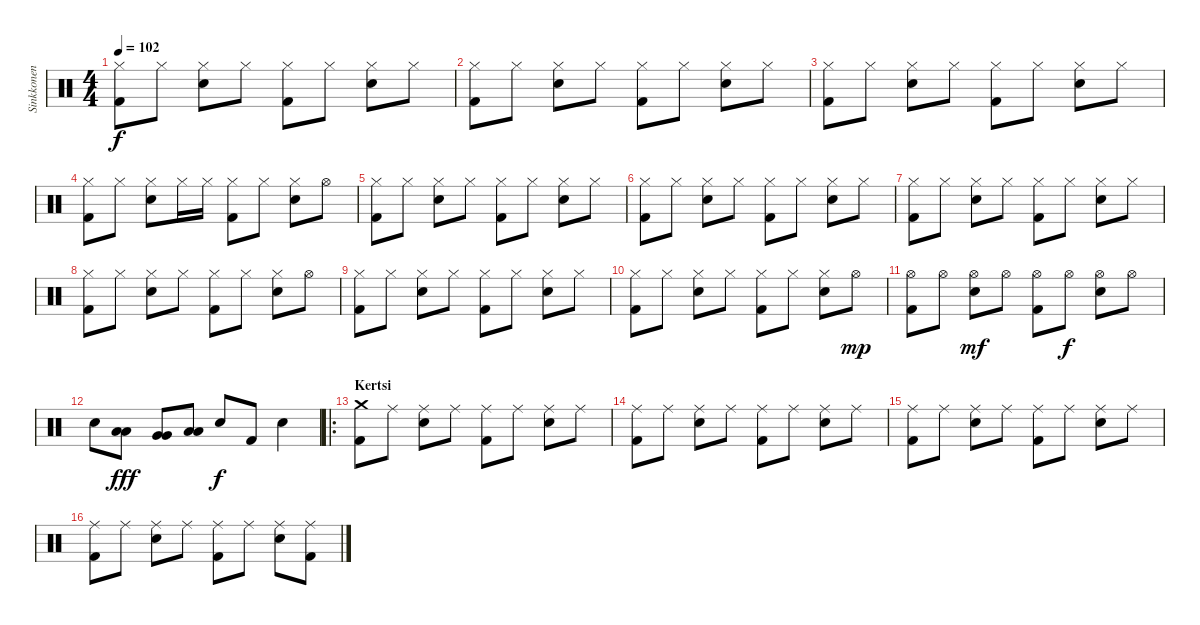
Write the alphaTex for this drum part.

\track ("Sinkkonen" "Sinkkonen") {instrument percussion}
\staff {score}
\articulation defaults
\ts (4 4)
\tempo 102
\clef neutral
\ks c
("Kick (hit) 2" "Hi-Hat (closed)").8{dy f} "Hi-Hat (closed)".8 ("Hi-Hat (closed)" "Snare (hit) 2").8 "Hi-Hat (closed)".8 ("Kick (hit) 2" "Hi-Hat (closed)").8 "Hi-Hat (closed)".8 ("Hi-Hat (closed)" "Snare (hit) 2").8 "Hi-Hat (closed)".8 |
("Kick (hit) 2" "Hi-Hat (closed)").8 "Hi-Hat (closed)".8 ("Hi-Hat (closed)" "Snare (hit) 2").8 "Hi-Hat (closed)".8 ("Kick (hit) 2" "Hi-Hat (closed)").8 "Hi-Hat (closed)".8 ("Hi-Hat (closed)" "Snare (hit) 2").8 "Hi-Hat (closed)".8 |
("Kick (hit) 2" "Hi-Hat (closed)").8 "Hi-Hat (closed)".8 ("Hi-Hat (closed)" "Snare (hit) 2").8 "Hi-Hat (closed)".8 ("Kick (hit) 2" "Hi-Hat (closed)").8 "Hi-Hat (closed)".8 ("Hi-Hat (closed)" "Snare (hit) 2").8 "Hi-Hat (closed)".8 |
("Kick (hit) 2" "Hi-Hat (closed)").8 "Hi-Hat (closed)".8 ("Hi-Hat (closed)" "Snare (hit) 2").8 "Hi-Hat (closed)".16 "Hi-Hat (closed)".16 ("Kick (hit) 2" "Hi-Hat (closed)").8 "Hi-Hat (closed)".8 ("Hi-Hat (closed)" "Snare (hit) 2").8 "Hi-Hat (open)".8 |
("Kick (hit) 2" "Hi-Hat (closed)").8 "Hi-Hat (closed)".8 ("Hi-Hat (closed)" "Snare (hit) 2").8 "Hi-Hat (closed)".8 ("Kick (hit) 2" "Hi-Hat (closed)").8 "Hi-Hat (closed)".8 ("Hi-Hat (closed)" "Snare (hit) 2").8 "Hi-Hat (closed)".8 |
("Kick (hit) 2" "Hi-Hat (closed)").8 "Hi-Hat (closed)".8 ("Hi-Hat (closed)" "Snare (hit) 2").8 "Hi-Hat (closed)".8 ("Kick (hit) 2" "Hi-Hat (closed)").8 "Hi-Hat (closed)".8 ("Hi-Hat (closed)" "Snare (hit) 2").8 "Hi-Hat (closed)".8 |
("Kick (hit) 2" "Hi-Hat (closed)").8 "Hi-Hat (closed)".8 ("Hi-Hat (closed)" "Snare (hit) 2").8 "Hi-Hat (closed)".8 ("Kick (hit) 2" "Hi-Hat (closed)").8 "Hi-Hat (closed)".8 ("Hi-Hat (closed)" "Snare (hit) 2").8 "Hi-Hat (closed)".8 |
("Kick (hit) 2" "Hi-Hat (closed)").8 "Hi-Hat (closed)".8 ("Hi-Hat (closed)" "Snare (hit) 2").8 "Hi-Hat (closed)".8 ("Kick (hit) 2" "Hi-Hat (closed)").8 "Hi-Hat (closed)".8 ("Hi-Hat (closed)" "Snare (hit) 2").8 "Hi-Hat (open)".8 |
("Kick (hit) 2" "Hi-Hat (closed)").8 "Hi-Hat (closed)".8 ("Hi-Hat (closed)" "Snare (hit) 2").8 "Hi-Hat (closed)".8 ("Kick (hit) 2" "Hi-Hat (closed)").8 "Hi-Hat (closed)".8 ("Hi-Hat (closed)" "Snare (hit) 2").8 "Hi-Hat (closed)".8 |
("Kick (hit) 2" "Hi-Hat (closed)").8 "Hi-Hat (closed)".8 ("Hi-Hat (closed)" "Snare (hit) 2").8 "Hi-Hat (closed)".8 ("Kick (hit) 2" "Hi-Hat (closed)").8 "Hi-Hat (closed)".8 ("Hi-Hat (closed)" "Snare (hit) 2").8 "Hi-Hat (open)".8{dy mp} |
("Kick (hit) 2" "Hi-Hat (open)").8 "Hi-Hat (open)".8 ("Hi-Hat (open)" "Snare (hit) 2").8{dy mf} "Hi-Hat (open)".8 ("Kick (hit) 2" "Hi-Hat (open)").8 "Hi-Hat (open)".8{dy f} ("Hi-Hat (open)" "Snare (hit) 2").8 "Hi-Hat (open)".8 |
"Snare (hit) 2".8 ("Low Tom (hit)" "Low Tom (hit)").8{dy fff} ("Very Low Tom (hit)" "Very Low Tom (hit)").8 ("Low Floor Tom (hit)" "Low Floor Tom (hit)").8 "Snare (hit) 2".8{dy f} "Kick (hit) 2".8 "Snare (hit) 2".4 |
\ro
\section ("" "Kertsi")
("Kick (hit) 2" "Crash medium (hit)").8 "Ride (middle)".8 ("Ride (middle)" "Snare (hit) 2").8 "Ride (middle)".8 ("Kick (hit) 2" "Ride (middle)").8 "Ride (middle)".8 ("Ride (middle)" "Snare (hit) 2").8 "Ride (middle)".8 |
("Kick (hit) 2" "Ride (middle)").8 "Ride (middle)".8 ("Ride (middle)" "Snare (hit) 2").8 "Ride (middle)".8 ("Kick (hit) 2" "Ride (middle)").8 "Ride (middle)".8 ("Ride (middle)" "Snare (hit) 2").8 "Ride (middle)".8 |
("Kick (hit) 2" "Ride (middle)").8 "Ride (middle)".8 ("Ride (middle)" "Snare (hit) 2").8 "Ride (middle)".8 ("Kick (hit) 2" "Ride (middle)").8 "Ride (middle)".8 ("Ride (middle)" "Snare (hit) 2").8 "Ride (middle)".8 |
("Kick (hit) 2" "Ride (middle)").8 "Ride (middle)".8 ("Ride (middle)" "Snare (hit) 2").8 "Ride (middle)".8 ("Kick (hit) 2" "Ride (middle)").8 "Ride (middle)".8 ("Ride (middle)" "Snare (hit) 2").8 ("Kick (hit) 2" "Ride (middle)").8
